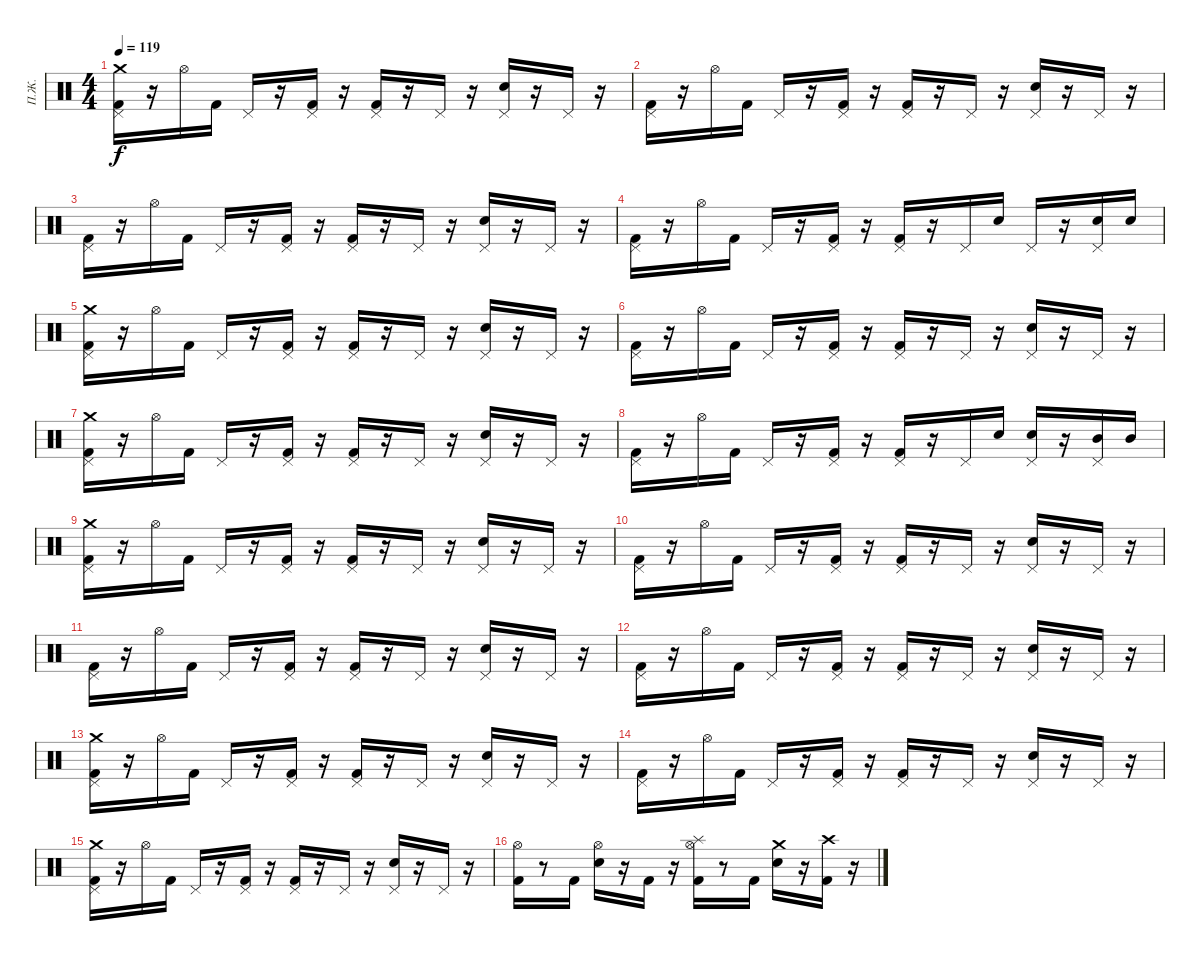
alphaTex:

\track ("П.Ж." "П.Ж.") {instrument percussion}
\staff {score}
\articulation defaults
\ts (4 4)
\tempo 119
\clef neutral
\ks c
("Crash medium (hit)" "Kick (hit) 2" "Pedal Hi-Hat (hit)").16{dy f} r.16 "Hi-Hat (open)".16 "Kick (hit) 2".16 "Pedal Hi-Hat (hit)".16 r.16 ("Kick (hit) 2" "Pedal Hi-Hat (hit)").16 r.16 ("Kick (hit) 2" "Pedal Hi-Hat (hit)").16 r.16 "Pedal Hi-Hat (hit)".16 r.16 ("Electric Snare (hit)" "Pedal Hi-Hat (hit)").16 r.16 "Pedal Hi-Hat (hit)".16 r.16 |
("Kick (hit) 2" "Pedal Hi-Hat (hit)").16 r.16 "Hi-Hat (open)".16 "Kick (hit) 2".16 "Pedal Hi-Hat (hit)".16 r.16 ("Kick (hit) 2" "Pedal Hi-Hat (hit)").16 r.16 ("Kick (hit) 2" "Pedal Hi-Hat (hit)").16 r.16 "Pedal Hi-Hat (hit)".16 r.16 ("Electric Snare (hit)" "Pedal Hi-Hat (hit)").16 r.16 "Pedal Hi-Hat (hit)".16 r.16 |
("Kick (hit) 2" "Pedal Hi-Hat (hit)").16 r.16 "Hi-Hat (open)".16 "Kick (hit) 2".16 "Pedal Hi-Hat (hit)".16 r.16 ("Kick (hit) 2" "Pedal Hi-Hat (hit)").16 r.16 ("Kick (hit) 2" "Pedal Hi-Hat (hit)").16 r.16 "Pedal Hi-Hat (hit)".16 r.16 ("Electric Snare (hit)" "Pedal Hi-Hat (hit)").16 r.16 "Pedal Hi-Hat (hit)".16 r.16 |
("Kick (hit) 2" "Pedal Hi-Hat (hit)").16 r.16 "Hi-Hat (open)".16 "Kick (hit) 2".16 "Pedal Hi-Hat (hit)".16 r.16 ("Kick (hit) 2" "Pedal Hi-Hat (hit)").16 r.16 ("Kick (hit) 2" "Pedal Hi-Hat (hit)").16 r.16 "Pedal Hi-Hat (hit)".16 "Electric Snare (hit)".16 "Pedal Hi-Hat (hit)".16 r.16 ("Pedal Hi-Hat (hit)" "Electric Snare (hit)").16 "Electric Snare (hit)".16 |
("Kick (hit) 2" "Pedal Hi-Hat (hit)" "Crash medium (hit)").16 r.16 "Hi-Hat (open)".16 "Kick (hit) 2".16 "Pedal Hi-Hat (hit)".16 r.16 ("Kick (hit) 2" "Pedal Hi-Hat (hit)").16 r.16 ("Kick (hit) 2" "Pedal Hi-Hat (hit)").16 r.16 "Pedal Hi-Hat (hit)".16 r.16 ("Electric Snare (hit)" "Pedal Hi-Hat (hit)").16 r.16 "Pedal Hi-Hat (hit)".16 r.16 |
("Kick (hit) 2" "Pedal Hi-Hat (hit)").16 r.16 "Hi-Hat (open)".16 "Kick (hit) 2".16 "Pedal Hi-Hat (hit)".16 r.16 ("Kick (hit) 2" "Pedal Hi-Hat (hit)").16 r.16 ("Kick (hit) 2" "Pedal Hi-Hat (hit)").16 r.16 "Pedal Hi-Hat (hit)".16 r.16 ("Electric Snare (hit)" "Pedal Hi-Hat (hit)").16 r.16 "Pedal Hi-Hat (hit)".16 r.16 |
("Kick (hit) 2" "Pedal Hi-Hat (hit)" "Crash medium (hit)").16 r.16 "Hi-Hat (open)".16 "Kick (hit) 2".16 "Pedal Hi-Hat (hit)".16 r.16 ("Kick (hit) 2" "Pedal Hi-Hat (hit)").16 r.16 ("Kick (hit) 2" "Pedal Hi-Hat (hit)").16 r.16 "Pedal Hi-Hat (hit)".16 r.16 ("Electric Snare (hit)" "Pedal Hi-Hat (hit)").16 r.16 "Pedal Hi-Hat (hit)".16 r.16 |
("Kick (hit) 2" "Pedal Hi-Hat (hit)").16 r.16 "Hi-Hat (open)".16 "Kick (hit) 2".16 "Pedal Hi-Hat (hit)".16 r.16 ("Kick (hit) 2" "Pedal Hi-Hat (hit)").16 r.16 ("Kick (hit) 2" "Pedal Hi-Hat (hit)").16 r.16 "Pedal Hi-Hat (hit)".16 "Electric Snare (hit)".16 ("Electric Snare (hit)" "Pedal Hi-Hat (hit)").16 r.16 ("Pedal Hi-Hat (hit)" "Mid Tom (hit)").16 "Mid Tom (hit)".16 |
("Crash medium (hit)" "Kick (hit) 2" "Pedal Hi-Hat (hit)").16 r.16 "Hi-Hat (open)".16 "Kick (hit) 2".16 "Pedal Hi-Hat (hit)".16 r.16 ("Kick (hit) 2" "Pedal Hi-Hat (hit)").16 r.16 ("Kick (hit) 2" "Pedal Hi-Hat (hit)").16 r.16 "Pedal Hi-Hat (hit)".16 r.16 ("Electric Snare (hit)" "Pedal Hi-Hat (hit)").16 r.16 "Pedal Hi-Hat (hit)".16 r.16 |
("Kick (hit) 2" "Pedal Hi-Hat (hit)").16 r.16 "Hi-Hat (open)".16 "Kick (hit) 2".16 "Pedal Hi-Hat (hit)".16 r.16 ("Kick (hit) 2" "Pedal Hi-Hat (hit)").16 r.16 ("Kick (hit) 2" "Pedal Hi-Hat (hit)").16 r.16 "Pedal Hi-Hat (hit)".16 r.16 ("Electric Snare (hit)" "Pedal Hi-Hat (hit)").16 r.16 "Pedal Hi-Hat (hit)".16 r.16 |
("Kick (hit) 2" "Pedal Hi-Hat (hit)").16 r.16 "Hi-Hat (open)".16 "Kick (hit) 2".16 "Pedal Hi-Hat (hit)".16 r.16 ("Kick (hit) 2" "Pedal Hi-Hat (hit)").16 r.16 ("Kick (hit) 2" "Pedal Hi-Hat (hit)").16 r.16 "Pedal Hi-Hat (hit)".16 r.16 ("Electric Snare (hit)" "Pedal Hi-Hat (hit)").16 r.16 "Pedal Hi-Hat (hit)".16 r.16 |
("Kick (hit) 2" "Pedal Hi-Hat (hit)").16 r.16 "Hi-Hat (open)".16 "Kick (hit) 2".16 "Pedal Hi-Hat (hit)".16 r.16 ("Kick (hit) 2" "Pedal Hi-Hat (hit)").16 r.16 ("Kick (hit) 2" "Pedal Hi-Hat (hit)").16 r.16 "Pedal Hi-Hat (hit)".16 r.16 ("Electric Snare (hit)" "Pedal Hi-Hat (hit)").16 r.16 "Pedal Hi-Hat (hit)".16 r.16 |
("Kick (hit) 2" "Pedal Hi-Hat (hit)" "Crash medium (hit)").16 r.16 "Hi-Hat (open)".16 "Kick (hit) 2".16 "Pedal Hi-Hat (hit)".16 r.16 ("Kick (hit) 2" "Pedal Hi-Hat (hit)").16 r.16 ("Kick (hit) 2" "Pedal Hi-Hat (hit)").16 r.16 "Pedal Hi-Hat (hit)".16 r.16 ("Electric Snare (hit)" "Pedal Hi-Hat (hit)").16 r.16 "Pedal Hi-Hat (hit)".16 r.16 |
("Kick (hit) 2" "Pedal Hi-Hat (hit)").16 r.16 "Hi-Hat (open)".16 "Kick (hit) 2".16 "Pedal Hi-Hat (hit)".16 r.16 ("Kick (hit) 2" "Pedal Hi-Hat (hit)").16 r.16 ("Kick (hit) 2" "Pedal Hi-Hat (hit)").16 r.16 "Pedal Hi-Hat (hit)".16 r.16 ("Electric Snare (hit)" "Pedal Hi-Hat (hit)").16 r.16 "Pedal Hi-Hat (hit)".16 r.16 |
("Kick (hit) 2" "Pedal Hi-Hat (hit)" "Crash medium (hit)").16 r.16 "Hi-Hat (open)".16 "Kick (hit) 2".16 "Pedal Hi-Hat (hit)".16 r.16 ("Kick (hit) 2" "Pedal Hi-Hat (hit)").16 r.16 ("Kick (hit) 2" "Pedal Hi-Hat (hit)").16 r.16 "Pedal Hi-Hat (hit)".16 r.16 ("Electric Snare (hit)" "Pedal Hi-Hat (hit)").16 r.16 "Pedal Hi-Hat (hit)".16 r.16 |
("Kick (hit) 2" "Hi-Hat (open)").16 r.8 "Kick (hit) 2".16 ("Electric Snare (hit)" "Hi-Hat (open)").16 r.16 "Kick (hit) 2".16 r.16 ("Kick (hit) 2" "Hi-Hat (open)" "Splash (hit)").16 r.8 "Kick (hit) 2".16 ("Electric Snare (hit)" "Crash medium (hit)").16 r.16 ("Crash high (hit)" "Kick (hit) 2").16 r.16
